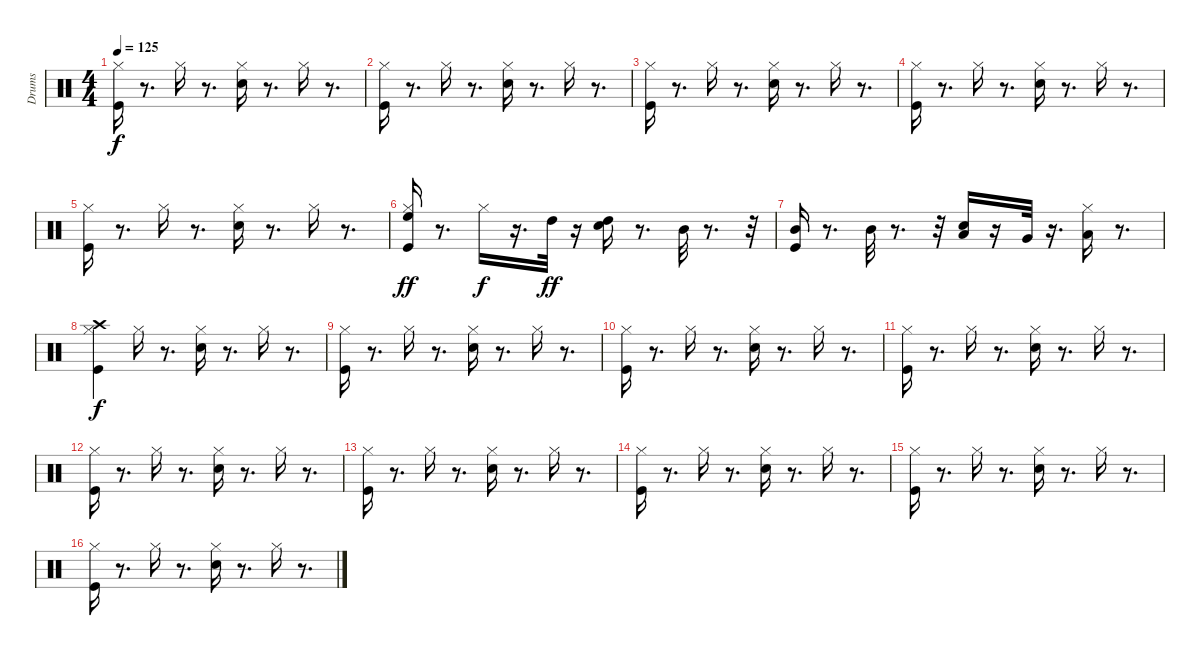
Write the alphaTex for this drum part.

\track ("Drums" "Drums") {instrument percussion}
\staff {score}
\articulation defaults
\ts (4 4)
\tempo 125
\clef neutral
\ks c
("Kick (hit)" "Hi-Hat (closed)").16{dy f} r.8{d} "Hi-Hat (closed)".16 r.8{d} ("Snare (hit) 2" "Hi-Hat (closed)").16 r.8{d} "Hi-Hat (closed)".16 r.8{d} |
("Kick (hit)" "Hi-Hat (closed)").16 r.8{d} "Hi-Hat (closed)".16 r.8{d} ("Snare (hit) 2" "Hi-Hat (closed)").16 r.8{d} "Hi-Hat (closed)".16 r.8{d} |
("Kick (hit)" "Hi-Hat (closed)").16 r.8{d} "Hi-Hat (closed)".16 r.8{d} ("Snare (hit) 2" "Hi-Hat (closed)").16 r.8{d} "Hi-Hat (closed)".16 r.8{d} |
("Kick (hit)" "Hi-Hat (closed)").16 r.8{d} "Hi-Hat (closed)".16 r.8{d} ("Snare (hit) 2" "Hi-Hat (closed)").16 r.8{d} "Hi-Hat (closed)".16 r.8{d} |
("Kick (hit)" "Hi-Hat (closed)").16 r.8{d} "Hi-Hat (closed)".16 r.8{d} ("Snare (hit) 2" "Hi-Hat (closed)").16 r.8{d} "Hi-Hat (closed)".16 r.8{d} |
("Kick (hit)" "Hi-Hat (closed)" "High Floor Tom (hit)").16{dy ff} r.8{d} "Hi-Hat (closed)".16{dy f} r.16{d} "High Tom (hit)".32{dy ff} r.16 ("High Tom (hit)" "Snare (hit) 2").16 r.8{d} "Mid Tom (hit)".32 r.8{d} r.32 |
("Mid Tom (hit)" "Kick (hit)").16 r.8{d} "Mid Tom (hit)".32 r.8{d} r.32 ("Snare (hit) 2" "Low Tom (hit)").16 r.16 "Very Low Tom (hit)".32 r.16{d} ("Low Floor Tom (hit)" "Hi-Hat (closed)").16 r.8{d} |
("Crash high (hit)" "Kick (hit)" "Hi-Hat (closed)").4{dy f} "Hi-Hat (closed)".16 r.8{d} ("Snare (hit) 2" "Hi-Hat (closed)").16 r.8{d} "Hi-Hat (closed)".16 r.8{d} |
("Kick (hit)" "Hi-Hat (closed)").16 r.8{d} "Hi-Hat (closed)".16 r.8{d} ("Snare (hit) 2" "Hi-Hat (closed)").16 r.8{d} "Hi-Hat (closed)".16 r.8{d} |
("Kick (hit)" "Hi-Hat (closed)").16 r.8{d} "Hi-Hat (closed)".16 r.8{d} ("Snare (hit) 2" "Hi-Hat (closed)").16 r.8{d} "Hi-Hat (closed)".16 r.8{d} |
("Kick (hit)" "Hi-Hat (closed)").16 r.8{d} "Hi-Hat (closed)".16 r.8{d} ("Snare (hit) 2" "Hi-Hat (closed)").16 r.8{d} "Hi-Hat (closed)".16 r.8{d} |
("Kick (hit)" "Hi-Hat (closed)").16 r.8{d} "Hi-Hat (closed)".16 r.8{d} ("Snare (hit) 2" "Hi-Hat (closed)").16 r.8{d} "Hi-Hat (closed)".16 r.8{d} |
("Kick (hit)" "Hi-Hat (closed)").16 r.8{d} "Hi-Hat (closed)".16 r.8{d} ("Snare (hit) 2" "Hi-Hat (closed)").16 r.8{d} "Hi-Hat (closed)".16 r.8{d} |
("Kick (hit)" "Hi-Hat (closed)").16 r.8{d} "Hi-Hat (closed)".16 r.8{d} ("Snare (hit) 2" "Hi-Hat (closed)").16 r.8{d} "Hi-Hat (closed)".16 r.8{d} |
("Kick (hit)" "Hi-Hat (closed)").16 r.8{d} "Hi-Hat (closed)".16 r.8{d} ("Snare (hit) 2" "Hi-Hat (closed)").16 r.8{d} "Hi-Hat (closed)".16 r.8{d} |
("Kick (hit)" "Hi-Hat (closed)").16 r.8{d} "Hi-Hat (closed)".16 r.8{d} ("Snare (hit) 2" "Hi-Hat (closed)").16 r.8{d} "Hi-Hat (closed)".16 r.8{d}
